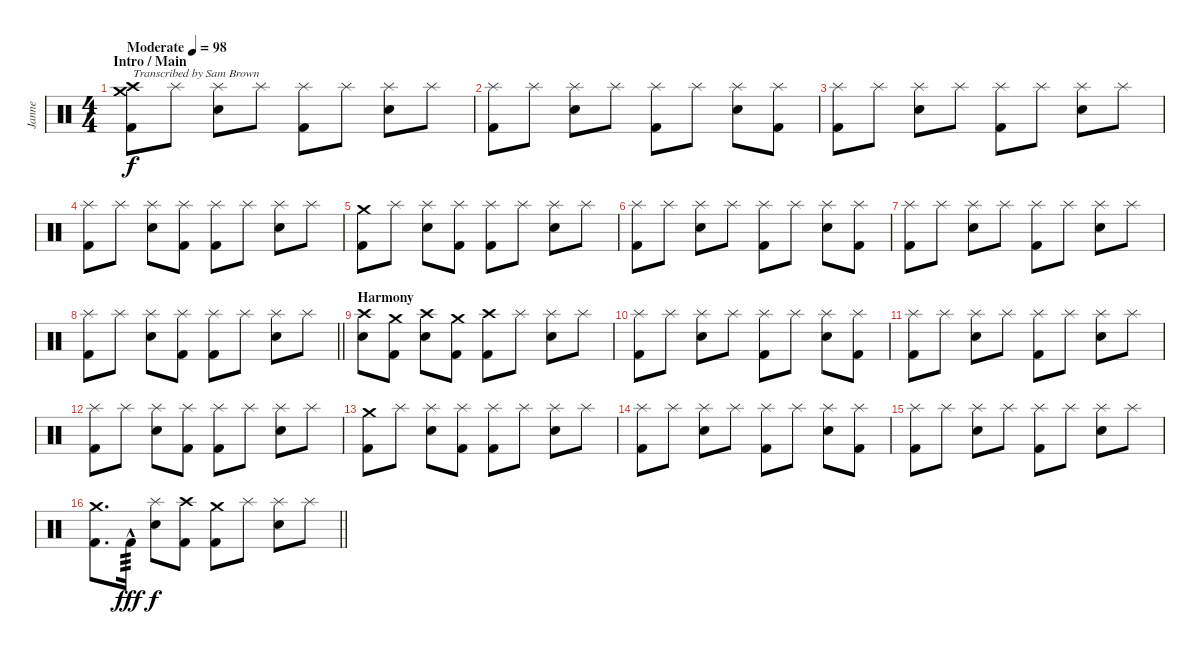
\track ("Janne" "Janne") {instrument percussion}
\staff {score}
\articulation defaults
\ts (4 4)
\section ("" "Intro / Main")
\tempo (98 "Moderate")
\clef neutral
\ks c
("Kick (hit) 2" "Crash medium (hit)" "Crash high (hit)").8{txt "Transcribed by Sam Brown" dy f} "Splash (hit)".8 ("Snare (hit) 2" "Splash (hit)").8 "Splash (hit)".8 ("Kick (hit) 2" "Splash (hit)").8 "Splash (hit)".8 ("Snare (hit) 2" "Splash (hit)").8 "Splash (hit)".8 |
("Kick (hit) 2" "Splash (hit)").8 "Splash (hit)".8 ("Snare (hit) 2" "Splash (hit)").8 "Splash (hit)".8 ("Kick (hit) 2" "Splash (hit)").8 "Splash (hit)".8 ("Snare (hit) 2" "Splash (hit)").8 ("Kick (hit) 2" "Splash (hit)").8 |
("Kick (hit) 2" "Splash (hit)").8 "Splash (hit)".8 ("Snare (hit) 2" "Splash (hit)").8 "Splash (hit)".8 ("Kick (hit) 2" "Splash (hit)").8 "Splash (hit)".8 ("Snare (hit) 2" "Splash (hit)").8 "Splash (hit)".8 |
("Kick (hit) 2" "Splash (hit)").8 "Splash (hit)".8 ("Snare (hit) 2" "Splash (hit)").8 ("Kick (hit) 2" "Splash (hit)").8 ("Kick (hit) 2" "Splash (hit)").8 "Splash (hit)".8 ("Snare (hit) 2" "Splash (hit)").8 "Splash (hit)".8 |
("Kick (hit) 2" "Crash medium (hit)").8 "Splash (hit)".8 ("Snare (hit) 2" "Splash (hit)").8 ("Kick (hit) 2" "Splash (hit)").8 ("Kick (hit) 2" "Splash (hit)").8 "Splash (hit)".8 ("Snare (hit) 2" "Splash (hit)").8 "Splash (hit)".8 |
("Kick (hit) 2" "Splash (hit)").8 "Splash (hit)".8 ("Snare (hit) 2" "Splash (hit)").8 "Splash (hit)".8 ("Kick (hit) 2" "Splash (hit)").8 "Splash (hit)".8 ("Snare (hit) 2" "Splash (hit)").8 ("Kick (hit) 2" "Splash (hit)").8 |
("Kick (hit) 2" "Splash (hit)").8 "Splash (hit)".8 ("Snare (hit) 2" "Splash (hit)").8 "Splash (hit)".8 ("Kick (hit) 2" "Splash (hit)").8 "Splash (hit)".8 ("Snare (hit) 2" "Splash (hit)").8 "Splash (hit)".8 |
\barLineRight lightlight
("Kick (hit) 2" "Splash (hit)").8 "Splash (hit)".8 ("Snare (hit) 2" "Splash (hit)").8 ("Kick (hit) 2" "Splash (hit)").8 ("Kick (hit) 2" "Splash (hit)").8 "Splash (hit)".8 ("Snare (hit) 2" "Splash (hit)").8 "Splash (hit)".8 |
\section ("" "Harmony")
("Snare (hit) 2" "Crash high (hit)").8 ("Kick (hit) 2" "Crash medium (hit)").8 ("Snare (hit) 2" "Crash high (hit)").8 ("Kick (hit) 2" "Crash medium (hit)").8 ("Kick (hit) 2" "Crash high (hit)").8 "Splash (hit)".8 ("Snare (hit) 2" "Splash (hit)").8 "Splash (hit)".8 |
("Kick (hit) 2" "Splash (hit)").8 "Splash (hit)".8 ("Snare (hit) 2" "Splash (hit)").8 "Splash (hit)".8 ("Kick (hit) 2" "Splash (hit)").8 "Splash (hit)".8 ("Snare (hit) 2" "Splash (hit)").8 ("Kick (hit) 2" "Splash (hit)").8 |
("Kick (hit) 2" "Splash (hit)").8 "Splash (hit)".8 ("Snare (hit) 2" "Splash (hit)").8 "Splash (hit)".8 ("Kick (hit) 2" "Splash (hit)").8 "Splash (hit)".8 ("Snare (hit) 2" "Splash (hit)").8 "Splash (hit)".8 |
("Kick (hit) 2" "Splash (hit)").8 "Splash (hit)".8 ("Snare (hit) 2" "Splash (hit)").8 ("Kick (hit) 2" "Splash (hit)").8 ("Kick (hit) 2" "Splash (hit)").8 "Splash (hit)".8 ("Snare (hit) 2" "Splash (hit)").8 "Splash (hit)".8 |
("Kick (hit) 2" "Crash medium (hit)").8 "Splash (hit)".8 ("Snare (hit) 2" "Splash (hit)").8 ("Kick (hit) 2" "Splash (hit)").8 ("Kick (hit) 2" "Splash (hit)").8 "Splash (hit)".8 ("Snare (hit) 2" "Splash (hit)").8 "Splash (hit)".8 |
("Kick (hit) 2" "Splash (hit)").8 "Splash (hit)".8 ("Snare (hit) 2" "Splash (hit)").8 "Splash (hit)".8 ("Kick (hit) 2" "Splash (hit)").8 "Splash (hit)".8 ("Snare (hit) 2" "Splash (hit)").8 ("Kick (hit) 2" "Splash (hit)").8 |
("Kick (hit) 2" "Splash (hit)").8 "Splash (hit)".8 ("Snare (hit) 2" "Splash (hit)").8 "Splash (hit)".8 ("Kick (hit) 2" "Splash (hit)").8 "Splash (hit)".8 ("Snare (hit) 2" "Splash (hit)").8 "Splash (hit)".8 |
\barLineRight lightlight
("Kick (hit) 2" "Crash medium (hit)").8{d} "Kick (hit) 2"{hac}.16{tp 3 dy fff} ("Snare (hit) 2" "Splash (hit)").8{dy f} ("Kick (hit) 2" "Crash high (hit)").8 ("Kick (hit) 2" "Crash medium (hit)").8 "Splash (hit)".8 ("Snare (hit) 2" "Splash (hit)").8 "Splash (hit)".8
